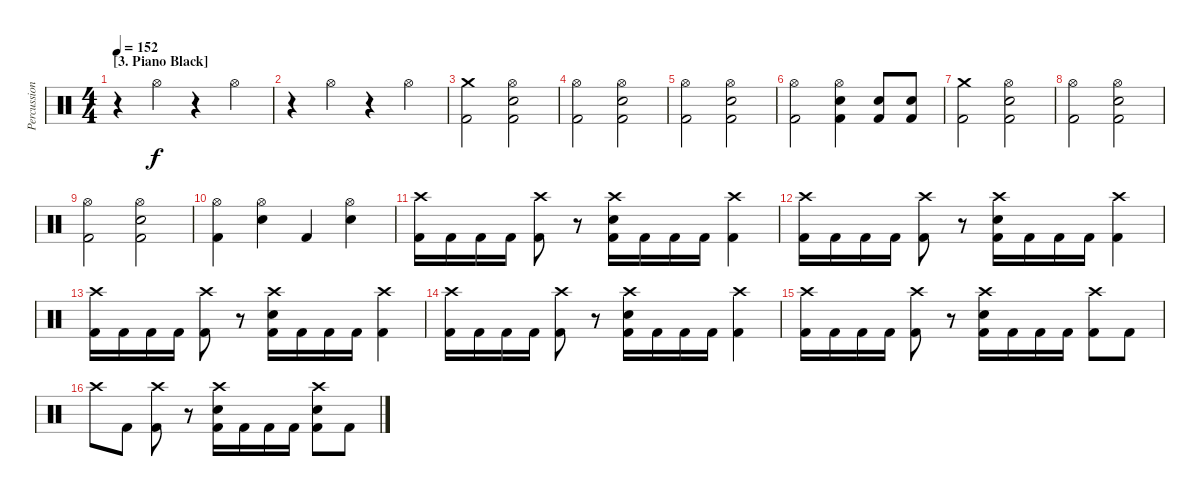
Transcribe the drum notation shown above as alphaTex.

\track ("Percussion" "Percussion") {instrument percussion}
\staff {score}
\articulation defaults
\ts (4 4)
\section ("" "[3. Piano Black]")
\tempo 152
\clef neutral
\ks c
r.4{dy f} "Hi-Hat (open)".4 r.4 "Hi-Hat (open)".4 |
r.4 "Hi-Hat (open)".4 r.4 "Hi-Hat (open)".4 |
("Crash medium (hit)" "Kick (hit) 2").2 ("Hi-Hat (open)" "Electric Snare (hit)" "Kick (hit) 2").2 |
("Hi-Hat (open)" "Kick (hit) 2").2 ("Hi-Hat (open)" "Electric Snare (hit)" "Kick (hit) 2").2 |
("Hi-Hat (open)" "Kick (hit) 2").2 ("Hi-Hat (open)" "Electric Snare (hit)" "Kick (hit) 2").2 |
("Hi-Hat (open)" "Kick (hit) 2").2 ("Hi-Hat (open)" "Electric Snare (hit)" "Kick (hit) 2").4 ("Electric Snare (hit)" "Kick (hit) 2").8 ("Electric Snare (hit)" "Kick (hit) 2").8 |
("Crash medium (hit)" "Kick (hit) 2").2 ("Hi-Hat (open)" "Electric Snare (hit)" "Kick (hit) 2").2 |
("Hi-Hat (open)" "Kick (hit) 2").2 ("Hi-Hat (open)" "Electric Snare (hit)" "Kick (hit) 2").2 |
("Hi-Hat (open)" "Kick (hit) 2").2 ("Hi-Hat (open)" "Electric Snare (hit)" "Kick (hit) 2").2 |
("Hi-Hat (open)" "Kick (hit) 2").4 ("Hi-Hat (open)" "Electric Snare (hit)").4 "Kick (hit) 2".4 ("Hi-Hat (open)" "Electric Snare (hit)").4 |
("Crash high (hit)" "Kick (hit) 2").16 "Kick (hit) 2".16 "Kick (hit) 2".16 "Kick (hit) 2".16 ("Crash high (hit)" "Kick (hit) 2").8 r.8 ("Crash high (hit)" "Electric Snare (hit)" "Kick (hit) 2").16 "Kick (hit) 2".16 "Kick (hit) 2".16 "Kick (hit) 2".16 ("Crash high (hit)" "Kick (hit) 2").4 |
("Crash high (hit)" "Kick (hit) 2").16 "Kick (hit) 2".16 "Kick (hit) 2".16 "Kick (hit) 2".16 ("Crash high (hit)" "Kick (hit) 2").8 r.8 ("Crash high (hit)" "Electric Snare (hit)" "Kick (hit) 2").16 "Kick (hit) 2".16 "Kick (hit) 2".16 "Kick (hit) 2".16 ("Crash high (hit)" "Kick (hit) 2").4 |
("Crash high (hit)" "Kick (hit) 2").16 "Kick (hit) 2".16 "Kick (hit) 2".16 "Kick (hit) 2".16 ("Crash high (hit)" "Kick (hit) 2").8 r.8 ("Crash high (hit)" "Electric Snare (hit)" "Kick (hit) 2").16 "Kick (hit) 2".16 "Kick (hit) 2".16 "Kick (hit) 2".16 ("Crash high (hit)" "Kick (hit) 2").4 |
("Crash high (hit)" "Kick (hit) 2").16 "Kick (hit) 2".16 "Kick (hit) 2".16 "Kick (hit) 2".16 ("Crash high (hit)" "Kick (hit) 2").8 r.8 ("Crash high (hit)" "Electric Snare (hit)" "Kick (hit) 2").16 "Kick (hit) 2".16 "Kick (hit) 2".16 "Kick (hit) 2".16 ("Crash high (hit)" "Kick (hit) 2").4 |
("Crash high (hit)" "Kick (hit) 2").16 "Kick (hit) 2".16 "Kick (hit) 2".16 "Kick (hit) 2".16 ("Crash high (hit)" "Kick (hit) 2").8 r.8 ("Crash high (hit)" "Electric Snare (hit)" "Kick (hit) 2").16 "Kick (hit) 2".16 "Kick (hit) 2".16 "Kick (hit) 2".16 ("Crash high (hit)" "Kick (hit) 2").8 "Kick (hit) 2".8 |
"Crash high (hit)".8 "Kick (hit) 2".8 ("Crash high (hit)" "Kick (hit) 2").8 r.8 ("Crash high (hit)" "Electric Snare (hit)" "Kick (hit) 2").16 "Kick (hit) 2".16 "Kick (hit) 2".16 "Kick (hit) 2".16 ("Crash high (hit)" "Electric Snare (hit)" "Kick (hit) 2").8 "Kick (hit) 2".8
